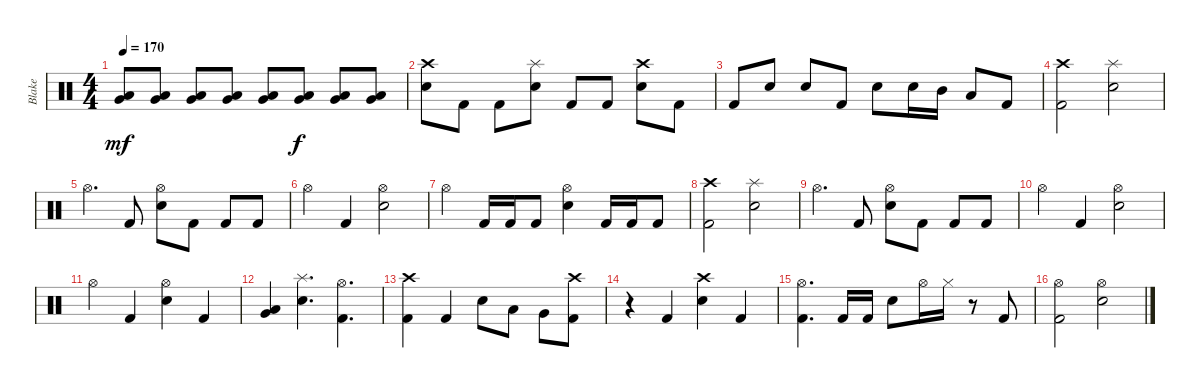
\track ("Blake" "Blake") {instrument percussion}
\staff {score}
\articulation defaults
\ts (4 4)
\tempo 170
\clef neutral
\ks c
("Very Low Tom (hit)" "Low Tom (hit)").8{dy mf} ("Very Low Tom (hit)" "Low Tom (hit)").8 ("Very Low Tom (hit)" "Low Tom (hit)").8 ("Very Low Tom (hit)" "Low Tom (hit)").8 ("Very Low Tom (hit)" "Low Tom (hit)").8 ("Very Low Tom (hit)" "Low Tom (hit)").8{dy f} ("Very Low Tom (hit)" "Low Tom (hit)").8 ("Very Low Tom (hit)" "Low Tom (hit)").8 |
("Crash high (hit)" "Snare (hit) 2").8 "Kick (hit) 2".8 "Kick (hit) 2".8 ("Splash (hit)" "Snare (hit) 2").8 "Kick (hit) 2".8 "Kick (hit) 2".8 ("Crash high (hit)" "Snare (hit) 2").8 "Kick (hit) 2".8 |
"Kick (hit) 2".8 "Snare (hit) 2".8 "Snare (hit) 2".8 "Kick (hit) 2".8 "Snare (hit) 2".8 "Snare (hit) 2".16 "Mid Tom (hit)".16 "Low Tom (hit)".8 "Kick (hit) 2".8 |
("Crash high (hit)" "Kick (hit) 2").2 ("Splash (hit)" "Snare (hit) 2").2 |
"Hi-Hat (open)".4{d} "Kick (hit) 2".8 ("Hi-Hat (open)" "Snare (hit) 2").8 "Kick (hit) 2".8 "Kick (hit) 2".8 "Kick (hit) 2".8 |
"Hi-Hat (open)".4 "Kick (hit) 2".4 ("Hi-Hat (open)" "Snare (hit) 2").2 |
"Hi-Hat (open)".4 "Kick (hit) 2".16 "Kick (hit) 2".16 "Kick (hit) 2".8 ("Hi-Hat (open)" "Snare (hit) 2").4 "Kick (hit) 2".16 "Kick (hit) 2".16 "Kick (hit) 2".8 |
("Crash high (hit)" "Kick (hit) 2").2 ("Splash (hit)" "Snare (hit) 2").2 |
"Hi-Hat (open)".4{d} "Kick (hit) 2".8 ("Hi-Hat (open)" "Snare (hit) 2").8 "Kick (hit) 2".8 "Kick (hit) 2".8 "Kick (hit) 2".8 |
"Hi-Hat (open)".4 "Kick (hit) 2".4 ("Hi-Hat (open)" "Snare (hit) 2").2 |
"Hi-Hat (open)".4 "Kick (hit) 2".4 ("Hi-Hat (open)" "Snare (hit) 2").4 "Kick (hit) 2".4 |
("Low Tom (hit)" "Very Low Tom (hit)").4 ("Splash (hit)" "Snare (hit) 2").4{d} ("Hi-Hat (open)" "Kick (hit) 2").4{d} |
("Crash high (hit)" "Kick (hit) 2").4 "Kick (hit) 2".4 "Snare (hit) 2".8 "Low Tom (hit)".8 "Very Low Tom (hit)".8 ("Crash high (hit)" "Kick (hit) 2").8 |
r.4 "Kick (hit) 2".4 ("Crash high (hit)" "Snare (hit) 2").4 "Kick (hit) 2".4 |
("Hi-Hat (open)" "Kick (hit) 2").4{d} "Kick (hit) 2".16 "Kick (hit) 2".16 "Snare (hit) 2".8 "Hi-Hat (open)".16 "Hi-Hat (closed)".16 r.8 "Kick (hit) 2".8 |
("Hi-Hat (open)" "Kick (hit) 2").2 ("Hi-Hat (open)" "Snare (hit) 2").2
